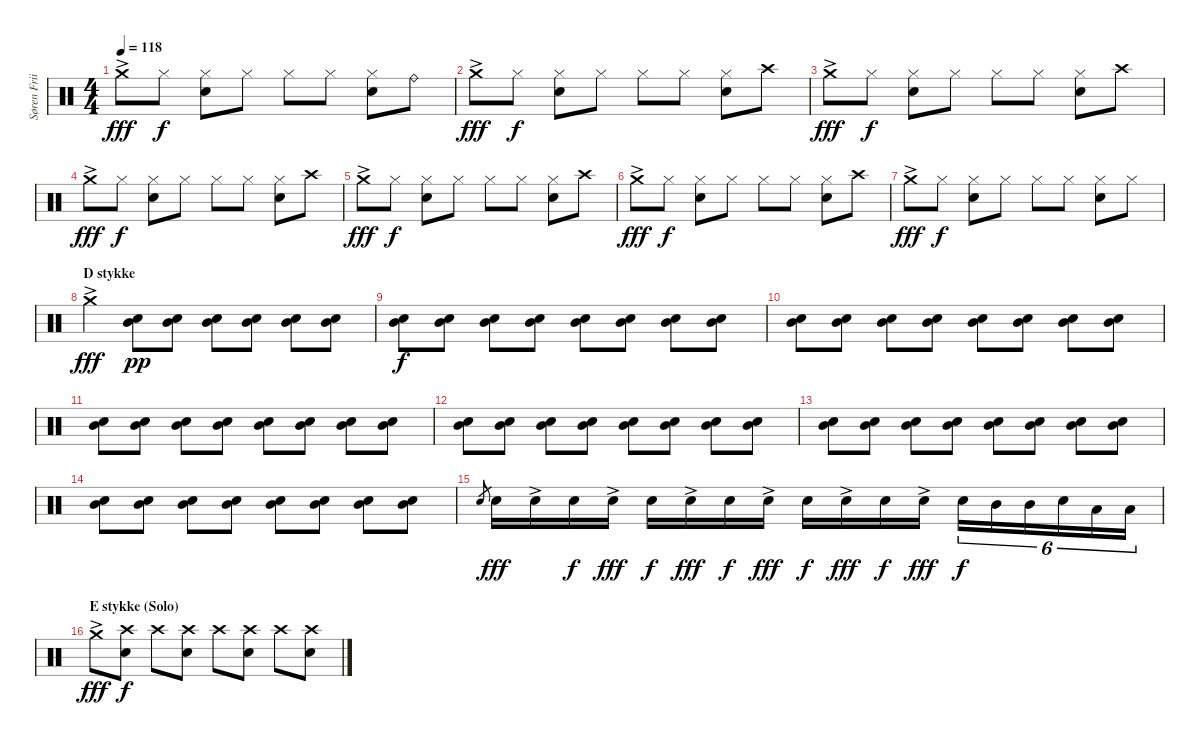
\track ("Søren Friis (Drums)" "Søren Frii") {instrument percussion}
\staff {score}
\articulation defaults
\ts (4 4)
\tempo 118
\clef neutral
\ks c "Crash medium (hit)"{ac}.8{dy fff} "Hi-Hat (closed)".8{dy f}
("Hi-Hat (closed)" "Snare (hit) 2").8 "Hi-Hat (closed)".8 "Hi-Hat (closed)".8 "Hi-Hat (closed)".8 ("Hi-Hat (closed)" "Snare (hit) 2").8 "Ride (bell)".8 |
"Crash medium (hit)"{ac}.8{dy fff} "Hi-Hat (closed)".8{dy f} ("Hi-Hat (closed)" "Snare (hit) 2").8 "Hi-Hat (closed)".8 "Hi-Hat (closed)".8 "Hi-Hat (closed)".8 ("Hi-Hat (closed)" "Snare (hit) 2").8 "Crash high (hit)".8 |
"Crash medium (hit)"{ac}.8{dy fff} "Hi-Hat (closed)".8{dy f} ("Hi-Hat (closed)" "Snare (hit) 2").8 "Hi-Hat (closed)".8 "Hi-Hat (closed)".8 "Hi-Hat (closed)".8 ("Hi-Hat (closed)" "Snare (hit) 2").8 "Crash high (hit)".8 |
"Crash medium (hit)"{ac}.8{dy fff} "Hi-Hat (closed)".8{dy f} ("Hi-Hat (closed)" "Snare (hit) 2").8 "Hi-Hat (closed)".8 "Hi-Hat (closed)".8 "Hi-Hat (closed)".8 ("Hi-Hat (closed)" "Snare (hit) 2").8 "Crash high (hit)".8 |
"Crash medium (hit)"{ac}.8{dy fff} "Hi-Hat (closed)".8{dy f} ("Hi-Hat (closed)" "Snare (hit) 2").8 "Hi-Hat (closed)".8 "Hi-Hat (closed)".8 "Hi-Hat (closed)".8 ("Hi-Hat (closed)" "Snare (hit) 2").8 "Crash high (hit)".8 |
"Crash medium (hit)"{ac}.8{dy fff} "Hi-Hat (closed)".8{dy f} ("Hi-Hat (closed)" "Snare (hit) 2").8 "Hi-Hat (closed)".8 "Hi-Hat (closed)".8 "Hi-Hat (closed)".8 ("Hi-Hat (closed)" "Snare (hit) 2").8 "Crash high (hit)".8 |
"Crash medium (hit)"{ac}.8{dy fff} "Hi-Hat (closed)".8{dy f} ("Hi-Hat (closed)" "Snare (hit) 2").8 "Hi-Hat (closed)".8 "Hi-Hat (closed)".8 "Hi-Hat (closed)".8 ("Hi-Hat (closed)" "Snare (hit) 2").8 "Hi-Hat (closed)".8 |
\section ("" "D stykke")
"Crash medium (hit)"{ac}.4{dy fff} ("Mid Tom (hit)" "Snare (hit) 2").8{dy pp} ("Mid Tom (hit)" "Snare (hit) 2").8 ("Mid Tom (hit)" "Snare (hit) 2").8 ("Mid Tom (hit)" "Snare (hit) 2").8 ("Mid Tom (hit)" "Snare (hit) 2").8 ("Mid Tom (hit)" "Snare (hit) 2").8 |
("Mid Tom (hit)" "Snare (hit) 2").8{dy f} ("Mid Tom (hit)" "Snare (hit) 2").8 ("Mid Tom (hit)" "Snare (hit) 2").8 ("Mid Tom (hit)" "Snare (hit) 2").8 ("Mid Tom (hit)" "Snare (hit) 2").8 ("Mid Tom (hit)" "Snare (hit) 2").8 ("Mid Tom (hit)" "Snare (hit) 2").8 ("Mid Tom (hit)" "Snare (hit) 2").8 |
("Mid Tom (hit)" "Snare (hit) 2").8 ("Mid Tom (hit)" "Snare (hit) 2").8 ("Mid Tom (hit)" "Snare (hit) 2").8 ("Mid Tom (hit)" "Snare (hit) 2").8 ("Mid Tom (hit)" "Snare (hit) 2").8 ("Mid Tom (hit)" "Snare (hit) 2").8 ("Mid Tom (hit)" "Snare (hit) 2").8 ("Mid Tom (hit)" "Snare (hit) 2").8 |
("Mid Tom (hit)" "Snare (hit) 2").8 ("Mid Tom (hit)" "Snare (hit) 2").8 ("Mid Tom (hit)" "Snare (hit) 2").8 ("Mid Tom (hit)" "Snare (hit) 2").8 ("Mid Tom (hit)" "Snare (hit) 2").8 ("Mid Tom (hit)" "Snare (hit) 2").8 ("Mid Tom (hit)" "Snare (hit) 2").8 ("Mid Tom (hit)" "Snare (hit) 2").8 |
("Mid Tom (hit)" "Snare (hit) 2").8 ("Mid Tom (hit)" "Snare (hit) 2").8 ("Mid Tom (hit)" "Snare (hit) 2").8 ("Mid Tom (hit)" "Snare (hit) 2").8 ("Mid Tom (hit)" "Snare (hit) 2").8 ("Mid Tom (hit)" "Snare (hit) 2").8 ("Mid Tom (hit)" "Snare (hit) 2").8 ("Mid Tom (hit)" "Snare (hit) 2").8 |
("Mid Tom (hit)" "Snare (hit) 2").8 ("Mid Tom (hit)" "Snare (hit) 2").8 ("Mid Tom (hit)" "Snare (hit) 2").8 ("Mid Tom (hit)" "Snare (hit) 2").8 ("Mid Tom (hit)" "Snare (hit) 2").8 ("Mid Tom (hit)" "Snare (hit) 2").8 ("Mid Tom (hit)" "Snare (hit) 2").8 ("Mid Tom (hit)" "Snare (hit) 2").8 |
("Mid Tom (hit)" "Snare (hit) 2").8 ("Mid Tom (hit)" "Snare (hit) 2").8 ("Mid Tom (hit)" "Snare (hit) 2").8 ("Mid Tom (hit)" "Snare (hit) 2").8 ("Mid Tom (hit)" "Snare (hit) 2").8 ("Mid Tom (hit)" "Snare (hit) 2").8 ("Mid Tom (hit)" "Snare (hit) 2").8 ("Mid Tom (hit)" "Snare (hit) 2").8 |
"Snare (hit) 2".8{gr} "Snare (hit) 2".16{dy fff} "Snare (hit) 2"{ac}.16 "Snare (hit) 2".16{dy f} "Snare (hit) 2"{ac}.16{dy fff} "Snare (hit) 2".16{dy f} "Snare (hit) 2"{ac}.16{dy fff} "Snare (hit) 2".16{dy f} "Snare (hit) 2"{ac}.16{dy fff} "Snare (hit) 2".16{dy f} "Snare (hit) 2"{ac}.16{dy fff} "Snare (hit) 2".16{dy f} "Snare (hit) 2"{ac}.16{dy fff} "Snare (hit) 2".16{tu (6 4) dy f} "Mid Tom (hit)".16{tu (6 4)} "Mid Tom (hit)".16{tu (6 4)} "Snare (hit) 2".16{tu (6 4)} "Low Tom (hit)".16{tu (6 4)} "Low Tom (hit)".16{tu (6 4)} |
\section ("" "E stykke (Solo)")
"Crash medium (hit)"{ac}.8{dy fff} ("Crash high (hit)" "Snare (hit) 2").8{dy f} "Crash high (hit)".8 ("Crash high (hit)" "Snare (hit) 2").8 "Crash high (hit)".8 ("Crash high (hit)" "Snare (hit) 2").8 "Crash high (hit)".8 ("Crash high (hit)" "Snare (hit) 2").8
